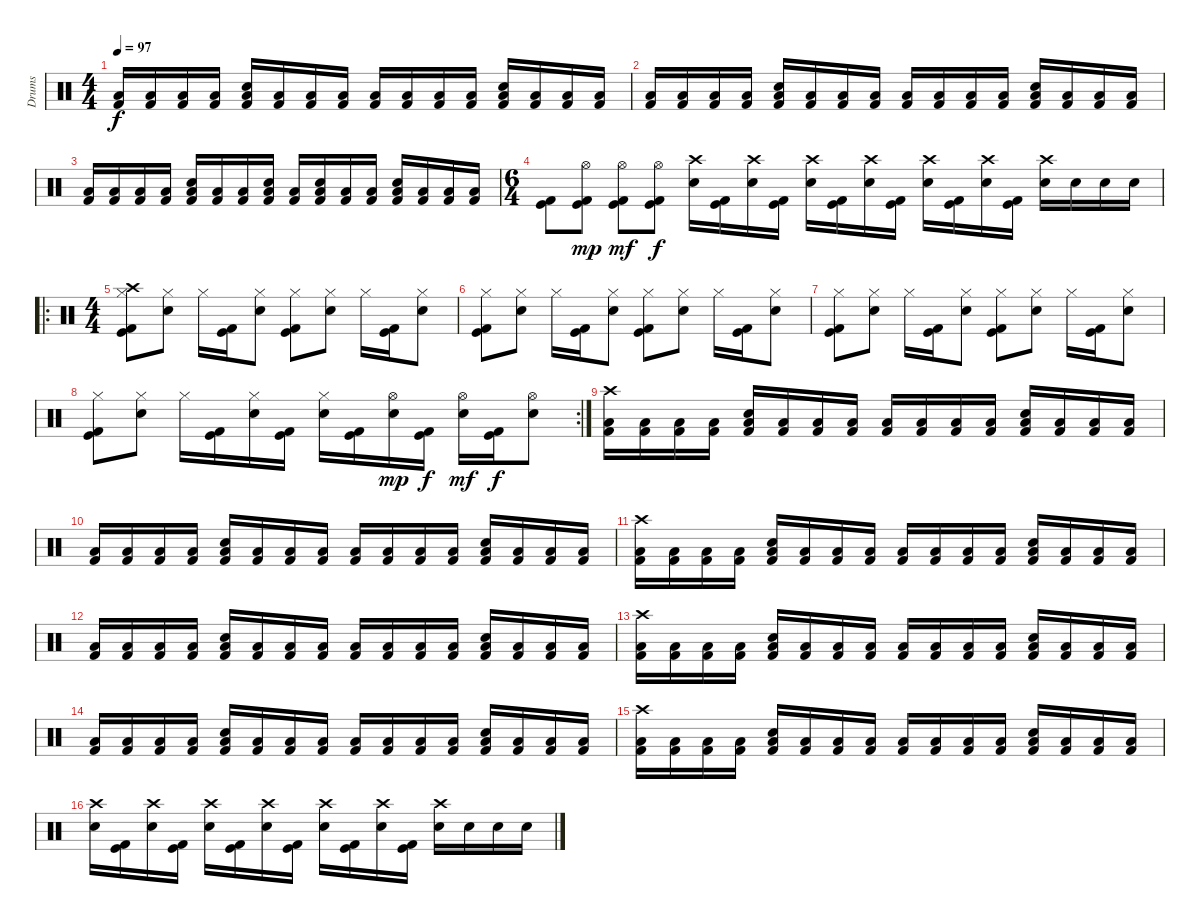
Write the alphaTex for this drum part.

\track ("Drums" "Drums") {instrument percussion}
\staff {score}
\articulation defaults
\ts (4 4)
\tempo 97
\clef neutral
\ks c
("Low Floor Tom (hit)" "Kick (hit) 2").16{dy f} ("Low Floor Tom (hit)" "Kick (hit) 2").16 ("Low Floor Tom (hit)" "Kick (hit) 2").16 ("Low Floor Tom (hit)" "Kick (hit) 2").16 ("Electric Snare (hit)" "Low Floor Tom (hit)" "Kick (hit) 2").16 ("Low Floor Tom (hit)" "Kick (hit) 2").16 ("Low Floor Tom (hit)" "Kick (hit) 2").16 ("Low Floor Tom (hit)" "Kick (hit) 2").16 ("Low Floor Tom (hit)" "Kick (hit) 2").16 ("Low Floor Tom (hit)" "Kick (hit) 2").16 ("Low Floor Tom (hit)" "Kick (hit) 2").16 ("Low Floor Tom (hit)" "Kick (hit) 2").16 ("Electric Snare (hit)" "Low Floor Tom (hit)" "Kick (hit) 2").16 ("Low Floor Tom (hit)" "Kick (hit) 2").16 ("Low Floor Tom (hit)" "Kick (hit) 2").16 ("Low Floor Tom (hit)" "Kick (hit) 2").16 |
("Low Floor Tom (hit)" "Kick (hit) 2").16 ("Low Floor Tom (hit)" "Kick (hit) 2").16 ("Low Floor Tom (hit)" "Kick (hit) 2").16 ("Low Floor Tom (hit)" "Kick (hit) 2").16 ("Electric Snare (hit)" "Low Floor Tom (hit)" "Kick (hit) 2").16 ("Low Floor Tom (hit)" "Kick (hit) 2").16 ("Low Floor Tom (hit)" "Kick (hit) 2").16 ("Low Floor Tom (hit)" "Kick (hit) 2").16 ("Low Floor Tom (hit)" "Kick (hit) 2").16 ("Low Floor Tom (hit)" "Kick (hit) 2").16 ("Low Floor Tom (hit)" "Kick (hit) 2").16 ("Low Floor Tom (hit)" "Kick (hit) 2").16 ("Electric Snare (hit)" "Low Floor Tom (hit)" "Kick (hit) 2").16 ("Low Floor Tom (hit)" "Kick (hit) 2").16 ("Low Floor Tom (hit)" "Kick (hit) 2").16 ("Low Floor Tom (hit)" "Kick (hit) 2").16 |
("Low Floor Tom (hit)" "Kick (hit) 2").16 ("Low Floor Tom (hit)" "Kick (hit) 2").16 ("Low Floor Tom (hit)" "Kick (hit) 2").16 ("Low Floor Tom (hit)" "Kick (hit) 2").16 ("Electric Snare (hit)" "Low Floor Tom (hit)" "Kick (hit) 2").16 ("Low Floor Tom (hit)" "Kick (hit) 2").16 ("Low Floor Tom (hit)" "Kick (hit) 2").16 ("Electric Snare (hit)" "Low Floor Tom (hit)" "Kick (hit) 2").16 ("Low Floor Tom (hit)" "Kick (hit) 2").16 ("Electric Snare (hit)" "Low Floor Tom (hit)" "Kick (hit) 2").16 ("Low Floor Tom (hit)" "Kick (hit) 2").16 ("Low Floor Tom (hit)" "Kick (hit) 2").16 ("Electric Snare (hit)" "Low Floor Tom (hit)" "Kick (hit) 2").16 ("Low Floor Tom (hit)" "Kick (hit) 2").16 ("Low Floor Tom (hit)" "Kick (hit) 2").16 ("Low Floor Tom (hit)" "Kick (hit) 2").16 |
\ts (6 4)
("Kick (hit)" "Kick (hit) 2").8 ("Hi-Hat (open)" "Kick (hit)" "Kick (hit) 2").8{dy mp} ("Hi-Hat (open)" "Kick (hit)" "Kick (hit) 2").8{dy mf} ("Hi-Hat (open)" "Kick (hit)" "Kick (hit) 2").8{dy f} ("Crash high (hit)" "Electric Snare (hit)").16 ("Kick (hit)" "Kick (hit) 2").16 ("Crash high (hit)" "Electric Snare (hit)").16 ("Kick (hit)" "Kick (hit) 2").16 ("Crash high (hit)" "Electric Snare (hit)").16 ("Kick (hit)" "Kick (hit) 2").16 ("Crash high (hit)" "Electric Snare (hit)").16 ("Kick (hit)" "Kick (hit) 2").16 ("Crash high (hit)" "Electric Snare (hit)").16 ("Kick (hit)" "Kick (hit) 2").16 ("Crash high (hit)" "Electric Snare (hit)").16 ("Kick (hit)" "Kick (hit) 2").16 ("Crash high (hit)" "Electric Snare (hit)").16 "Electric Snare (hit)".16 "Electric Snare (hit)".16 "Electric Snare (hit)".16 |
\ro
\ts (4 4)
("Hi-Hat (closed)" "Crash high (hit)" "Kick (hit) 2" "Kick (hit)").8 ("Hi-Hat (closed)" "Electric Snare (hit)").8 "Hi-Hat (closed)".16 ("Kick (hit)" "Kick (hit) 2").16 ("Hi-Hat (closed)" "Electric Snare (hit)").8 ("Hi-Hat (closed)" "Kick (hit)" "Kick (hit) 2").8 ("Hi-Hat (closed)" "Electric Snare (hit)").8 "Hi-Hat (closed)".16 ("Kick (hit) 2" "Kick (hit)").16 ("Hi-Hat (closed)" "Electric Snare (hit)").8 |
("Hi-Hat (closed)" "Kick (hit) 2" "Kick (hit)").8 ("Hi-Hat (closed)" "Electric Snare (hit)").8 "Hi-Hat (closed)".16 ("Kick (hit)" "Kick (hit) 2").16 ("Hi-Hat (closed)" "Electric Snare (hit)").8 ("Hi-Hat (closed)" "Kick (hit)" "Kick (hit) 2").8 ("Hi-Hat (closed)" "Electric Snare (hit)").8 "Hi-Hat (closed)".16 ("Kick (hit) 2" "Kick (hit)").16 ("Hi-Hat (closed)" "Electric Snare (hit)").8 |
("Hi-Hat (closed)" "Kick (hit) 2" "Kick (hit)").8 ("Hi-Hat (closed)" "Electric Snare (hit)").8 "Hi-Hat (closed)".16 ("Kick (hit)" "Kick (hit) 2").16 ("Hi-Hat (closed)" "Electric Snare (hit)").8 ("Hi-Hat (closed)" "Kick (hit)" "Kick (hit) 2").8 ("Hi-Hat (closed)" "Electric Snare (hit)").8 "Hi-Hat (closed)".16 ("Kick (hit) 2" "Kick (hit)").16 ("Hi-Hat (closed)" "Electric Snare (hit)").8 |
\rc 2
("Hi-Hat (closed)" "Kick (hit) 2" "Kick (hit)").8 ("Hi-Hat (closed)" "Electric Snare (hit)").8 "Hi-Hat (closed)".16 ("Kick (hit)" "Kick (hit) 2").16 ("Hi-Hat (closed)" "Electric Snare (hit)").16 ("Kick (hit)" "Kick (hit) 2").16 ("Hi-Hat (closed)" "Electric Snare (hit)").16 ("Kick (hit)" "Kick (hit) 2").16 ("Hi-Hat (open)" "Electric Snare (hit)").16{dy mp} ("Kick (hit)" "Kick (hit) 2").16{dy f} ("Hi-Hat (open)" "Electric Snare (hit)").16{dy mf} ("Kick (hit)" "Kick (hit) 2").16{dy f} ("Hi-Hat (open)" "Electric Snare (hit)").8 |
("Crash high (hit)" "Low Floor Tom (hit)" "Kick (hit) 2").16 ("Low Floor Tom (hit)" "Kick (hit) 2").16 ("Low Floor Tom (hit)" "Kick (hit) 2").16 ("Low Floor Tom (hit)" "Kick (hit) 2").16 ("Electric Snare (hit)" "Low Floor Tom (hit)" "Kick (hit) 2").16 ("Low Floor Tom (hit)" "Kick (hit) 2").16 ("Low Floor Tom (hit)" "Kick (hit) 2").16 ("Low Floor Tom (hit)" "Kick (hit) 2").16 ("Low Floor Tom (hit)" "Kick (hit) 2").16 ("Low Floor Tom (hit)" "Kick (hit) 2").16 ("Low Floor Tom (hit)" "Kick (hit) 2").16 ("Low Floor Tom (hit)" "Kick (hit) 2").16 ("Electric Snare (hit)" "Low Floor Tom (hit)" "Kick (hit) 2").16 ("Low Floor Tom (hit)" "Kick (hit) 2").16 ("Low Floor Tom (hit)" "Kick (hit) 2").16 ("Low Floor Tom (hit)" "Kick (hit) 2").16 |
("Low Floor Tom (hit)" "Kick (hit) 2").16 ("Low Floor Tom (hit)" "Kick (hit) 2").16 ("Low Floor Tom (hit)" "Kick (hit) 2").16 ("Low Floor Tom (hit)" "Kick (hit) 2").16 ("Electric Snare (hit)" "Low Floor Tom (hit)" "Kick (hit) 2").16 ("Low Floor Tom (hit)" "Kick (hit) 2").16 ("Low Floor Tom (hit)" "Kick (hit) 2").16 ("Low Floor Tom (hit)" "Kick (hit) 2").16 ("Low Floor Tom (hit)" "Kick (hit) 2").16 ("Low Floor Tom (hit)" "Kick (hit) 2").16 ("Low Floor Tom (hit)" "Kick (hit) 2").16 ("Low Floor Tom (hit)" "Kick (hit) 2").16 ("Electric Snare (hit)" "Low Floor Tom (hit)" "Kick (hit) 2").16 ("Low Floor Tom (hit)" "Kick (hit) 2").16 ("Low Floor Tom (hit)" "Kick (hit) 2").16 ("Low Floor Tom (hit)" "Kick (hit) 2").16 |
("Crash high (hit)" "Low Floor Tom (hit)" "Kick (hit) 2").16 ("Low Floor Tom (hit)" "Kick (hit) 2").16 ("Low Floor Tom (hit)" "Kick (hit) 2").16 ("Low Floor Tom (hit)" "Kick (hit) 2").16 ("Electric Snare (hit)" "Low Floor Tom (hit)" "Kick (hit) 2").16 ("Low Floor Tom (hit)" "Kick (hit) 2").16 ("Low Floor Tom (hit)" "Kick (hit) 2").16 ("Low Floor Tom (hit)" "Kick (hit) 2").16 ("Low Floor Tom (hit)" "Kick (hit) 2").16 ("Low Floor Tom (hit)" "Kick (hit) 2").16 ("Low Floor Tom (hit)" "Kick (hit) 2").16 ("Low Floor Tom (hit)" "Kick (hit) 2").16 ("Electric Snare (hit)" "Low Floor Tom (hit)" "Kick (hit) 2").16 ("Low Floor Tom (hit)" "Kick (hit) 2").16 ("Low Floor Tom (hit)" "Kick (hit) 2").16 ("Low Floor Tom (hit)" "Kick (hit) 2").16 |
("Low Floor Tom (hit)" "Kick (hit) 2").16 ("Low Floor Tom (hit)" "Kick (hit) 2").16 ("Low Floor Tom (hit)" "Kick (hit) 2").16 ("Low Floor Tom (hit)" "Kick (hit) 2").16 ("Electric Snare (hit)" "Low Floor Tom (hit)" "Kick (hit) 2").16 ("Low Floor Tom (hit)" "Kick (hit) 2").16 ("Low Floor Tom (hit)" "Kick (hit) 2").16 ("Low Floor Tom (hit)" "Kick (hit) 2").16 ("Low Floor Tom (hit)" "Kick (hit) 2").16 ("Low Floor Tom (hit)" "Kick (hit) 2").16 ("Low Floor Tom (hit)" "Kick (hit) 2").16 ("Low Floor Tom (hit)" "Kick (hit) 2").16 ("Electric Snare (hit)" "Low Floor Tom (hit)" "Kick (hit) 2").16 ("Low Floor Tom (hit)" "Kick (hit) 2").16 ("Low Floor Tom (hit)" "Kick (hit) 2").16 ("Low Floor Tom (hit)" "Kick (hit) 2").16 |
("Crash high (hit)" "Low Floor Tom (hit)" "Kick (hit) 2").16 ("Low Floor Tom (hit)" "Kick (hit) 2").16 ("Low Floor Tom (hit)" "Kick (hit) 2").16 ("Low Floor Tom (hit)" "Kick (hit) 2").16 ("Electric Snare (hit)" "Low Floor Tom (hit)" "Kick (hit) 2").16 ("Low Floor Tom (hit)" "Kick (hit) 2").16 ("Low Floor Tom (hit)" "Kick (hit) 2").16 ("Low Floor Tom (hit)" "Kick (hit) 2").16 ("Low Floor Tom (hit)" "Kick (hit) 2").16 ("Low Floor Tom (hit)" "Kick (hit) 2").16 ("Low Floor Tom (hit)" "Kick (hit) 2").16 ("Low Floor Tom (hit)" "Kick (hit) 2").16 ("Electric Snare (hit)" "Low Floor Tom (hit)" "Kick (hit) 2").16 ("Low Floor Tom (hit)" "Kick (hit) 2").16 ("Low Floor Tom (hit)" "Kick (hit) 2").16 ("Low Floor Tom (hit)" "Kick (hit) 2").16 |
("Low Floor Tom (hit)" "Kick (hit) 2").16 ("Low Floor Tom (hit)" "Kick (hit) 2").16 ("Low Floor Tom (hit)" "Kick (hit) 2").16 ("Low Floor Tom (hit)" "Kick (hit) 2").16 ("Electric Snare (hit)" "Low Floor Tom (hit)" "Kick (hit) 2").16 ("Low Floor Tom (hit)" "Kick (hit) 2").16 ("Low Floor Tom (hit)" "Kick (hit) 2").16 ("Low Floor Tom (hit)" "Kick (hit) 2").16 ("Low Floor Tom (hit)" "Kick (hit) 2").16 ("Low Floor Tom (hit)" "Kick (hit) 2").16 ("Low Floor Tom (hit)" "Kick (hit) 2").16 ("Low Floor Tom (hit)" "Kick (hit) 2").16 ("Electric Snare (hit)" "Low Floor Tom (hit)" "Kick (hit) 2").16 ("Low Floor Tom (hit)" "Kick (hit) 2").16 ("Low Floor Tom (hit)" "Kick (hit) 2").16 ("Low Floor Tom (hit)" "Kick (hit) 2").16 |
("Crash high (hit)" "Low Floor Tom (hit)" "Kick (hit) 2").16 ("Low Floor Tom (hit)" "Kick (hit) 2").16 ("Low Floor Tom (hit)" "Kick (hit) 2").16 ("Low Floor Tom (hit)" "Kick (hit) 2").16 ("Electric Snare (hit)" "Low Floor Tom (hit)" "Kick (hit) 2").16 ("Low Floor Tom (hit)" "Kick (hit) 2").16 ("Low Floor Tom (hit)" "Kick (hit) 2").16 ("Low Floor Tom (hit)" "Kick (hit) 2").16 ("Low Floor Tom (hit)" "Kick (hit) 2").16 ("Low Floor Tom (hit)" "Kick (hit) 2").16 ("Low Floor Tom (hit)" "Kick (hit) 2").16 ("Low Floor Tom (hit)" "Kick (hit) 2").16 ("Electric Snare (hit)" "Low Floor Tom (hit)" "Kick (hit) 2").16 ("Low Floor Tom (hit)" "Kick (hit) 2").16 ("Low Floor Tom (hit)" "Kick (hit) 2").16 ("Low Floor Tom (hit)" "Kick (hit) 2").16 |
("Crash high (hit)" "Electric Snare (hit)").16 ("Kick (hit)" "Kick (hit) 2").16 ("Crash high (hit)" "Electric Snare (hit)").16 ("Kick (hit)" "Kick (hit) 2").16 ("Crash high (hit)" "Electric Snare (hit)").16 ("Kick (hit)" "Kick (hit) 2").16 ("Crash high (hit)" "Electric Snare (hit)").16 ("Kick (hit)" "Kick (hit) 2").16 ("Crash high (hit)" "Electric Snare (hit)").16 ("Kick (hit)" "Kick (hit) 2").16 ("Crash high (hit)" "Electric Snare (hit)").16 ("Kick (hit)" "Kick (hit) 2").16 ("Crash high (hit)" "Electric Snare (hit)").16 "Electric Snare (hit)".16 "Electric Snare (hit)".16 "Electric Snare (hit)".16
